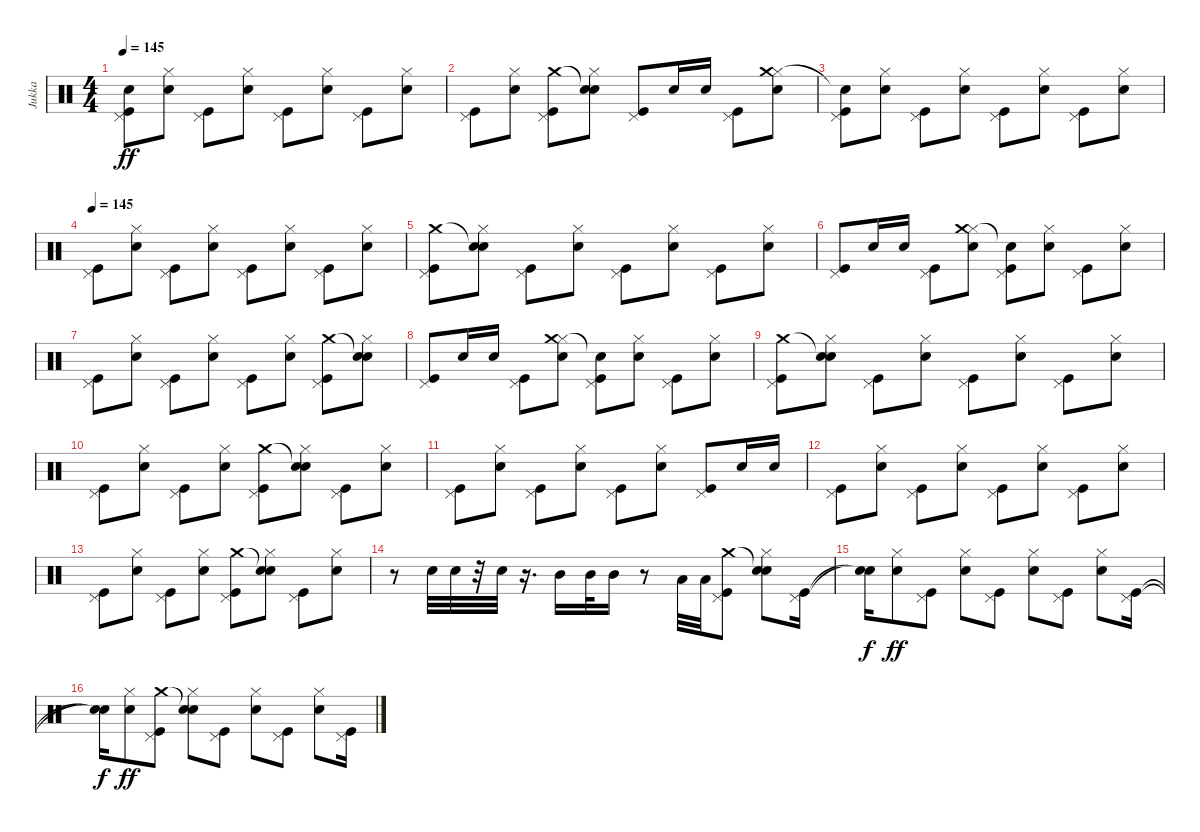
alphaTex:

\track ("Jukka" "Jukka") {instrument percussion}
\staff {score}
\articulation defaults
\ts (4 4)
\tempo 145
\clef neutral
\ks c
("Kick (hit)" "Pedal Hi-Hat (hit)" "Snare (hit)"{t}).8{dy ff} ("Electric Snare (hit)" "Hi-Hat (closed)").8 ("Kick (hit)" "Pedal Hi-Hat (hit)").8 ("Electric Snare (hit)" "Hi-Hat (closed)").8 ("Kick (hit)" "Pedal Hi-Hat (hit)").8 ("Electric Snare (hit)" "Hi-Hat (closed)").8 ("Kick (hit)" "Pedal Hi-Hat (hit)").8 ("Electric Snare (hit)" "Hi-Hat (closed)").8 |
("Kick (hit)" "Pedal Hi-Hat (hit)").8 ("Electric Snare (hit)" "Hi-Hat (closed)").8 ("Kick (hit)" "Pedal Hi-Hat (hit)" "Crash medium (hit)").8 ("Electric Snare (hit)" "Hi-Hat (closed)" "Snare (hit)"{t}).8 ("Kick (hit)" "Pedal Hi-Hat (hit)").8 "Electric Snare (hit)".16 "Electric Snare (hit)".16 ("Kick (hit)" "Pedal Hi-Hat (hit)").8 ("Electric Snare (hit)" "Hi-Hat (closed)" "Crash medium (hit)").8 |
("Kick (hit)" "Pedal Hi-Hat (hit)" "Snare (hit)"{t}).8 ("Electric Snare (hit)" "Hi-Hat (closed)").8 ("Kick (hit)" "Pedal Hi-Hat (hit)").8 ("Electric Snare (hit)" "Hi-Hat (closed)").8 ("Kick (hit)" "Pedal Hi-Hat (hit)").8 ("Electric Snare (hit)" "Hi-Hat (closed)").8 ("Kick (hit)" "Pedal Hi-Hat (hit)").8 ("Electric Snare (hit)" "Hi-Hat (closed)").8 |
\tempo 145
("Kick (hit)" "Pedal Hi-Hat (hit)").8 ("Electric Snare (hit)" "Hi-Hat (closed)").8 ("Kick (hit)" "Pedal Hi-Hat (hit)").8 ("Electric Snare (hit)" "Hi-Hat (closed)").8 ("Kick (hit)" "Pedal Hi-Hat (hit)").8 ("Electric Snare (hit)" "Hi-Hat (closed)").8 ("Kick (hit)" "Pedal Hi-Hat (hit)").8 ("Electric Snare (hit)" "Hi-Hat (closed)").8 |
("Kick (hit)" "Pedal Hi-Hat (hit)" "Crash medium (hit)").8 ("Electric Snare (hit)" "Hi-Hat (closed)" "Snare (hit)"{t}).8 ("Kick (hit)" "Pedal Hi-Hat (hit)").8 ("Electric Snare (hit)" "Hi-Hat (closed)").8 ("Kick (hit)" "Pedal Hi-Hat (hit)").8 ("Electric Snare (hit)" "Hi-Hat (closed)").8 ("Kick (hit)" "Pedal Hi-Hat (hit)").8 ("Electric Snare (hit)" "Hi-Hat (closed)").8 |
("Kick (hit)" "Pedal Hi-Hat (hit)").8 "Electric Snare (hit)".16 "Electric Snare (hit)".16 ("Kick (hit)" "Pedal Hi-Hat (hit)").8 ("Electric Snare (hit)" "Hi-Hat (closed)" "Crash medium (hit)").8 ("Kick (hit)" "Pedal Hi-Hat (hit)" "Snare (hit)"{t}).8 ("Electric Snare (hit)" "Hi-Hat (closed)").8 ("Kick (hit)" "Pedal Hi-Hat (hit)").8 ("Electric Snare (hit)" "Hi-Hat (closed)").8 |
("Kick (hit)" "Pedal Hi-Hat (hit)").8 ("Electric Snare (hit)" "Hi-Hat (closed)").8 ("Kick (hit)" "Pedal Hi-Hat (hit)").8 ("Electric Snare (hit)" "Hi-Hat (closed)").8 ("Kick (hit)" "Pedal Hi-Hat (hit)").8 ("Electric Snare (hit)" "Hi-Hat (closed)").8 ("Kick (hit)" "Pedal Hi-Hat (hit)" "Crash medium (hit)").8 ("Electric Snare (hit)" "Hi-Hat (closed)" "Snare (hit)"{t}).8 |
("Kick (hit)" "Pedal Hi-Hat (hit)").8 "Electric Snare (hit)".16 "Electric Snare (hit)".16 ("Kick (hit)" "Pedal Hi-Hat (hit)").8 ("Electric Snare (hit)" "Hi-Hat (closed)" "Crash medium (hit)").8 ("Kick (hit)" "Pedal Hi-Hat (hit)" "Snare (hit)"{t}).8 ("Electric Snare (hit)" "Hi-Hat (closed)").8 ("Kick (hit)" "Pedal Hi-Hat (hit)").8 ("Electric Snare (hit)" "Hi-Hat (closed)").8 |
("Kick (hit)" "Pedal Hi-Hat (hit)" "Crash medium (hit)").8 ("Electric Snare (hit)" "Hi-Hat (closed)" "Snare (hit)"{t}).8 ("Kick (hit)" "Pedal Hi-Hat (hit)").8 ("Electric Snare (hit)" "Hi-Hat (closed)").8 ("Kick (hit)" "Pedal Hi-Hat (hit)").8 ("Electric Snare (hit)" "Hi-Hat (closed)").8 ("Kick (hit)" "Pedal Hi-Hat (hit)").8 ("Electric Snare (hit)" "Hi-Hat (closed)").8 |
("Kick (hit)" "Pedal Hi-Hat (hit)").8 ("Electric Snare (hit)" "Hi-Hat (closed)").8 ("Kick (hit)" "Pedal Hi-Hat (hit)").8 ("Electric Snare (hit)" "Hi-Hat (closed)").8 ("Kick (hit)" "Pedal Hi-Hat (hit)" "Crash medium (hit)").8 ("Electric Snare (hit)" "Hi-Hat (closed)" "Snare (hit)"{t}).8 ("Kick (hit)" "Pedal Hi-Hat (hit)").8 ("Electric Snare (hit)" "Hi-Hat (closed)").8 |
("Kick (hit)" "Pedal Hi-Hat (hit)").8 ("Electric Snare (hit)" "Hi-Hat (closed)").8 ("Kick (hit)" "Pedal Hi-Hat (hit)").8 ("Electric Snare (hit)" "Hi-Hat (closed)").8 ("Kick (hit)" "Pedal Hi-Hat (hit)").8 ("Electric Snare (hit)" "Hi-Hat (closed)").8 ("Kick (hit)" "Pedal Hi-Hat (hit)").8 "Electric Snare (hit)".16 "Electric Snare (hit)".16 |
("Kick (hit)" "Pedal Hi-Hat (hit)").8 ("Electric Snare (hit)" "Hi-Hat (closed)").8 ("Kick (hit)" "Pedal Hi-Hat (hit)").8 ("Electric Snare (hit)" "Hi-Hat (closed)").8 ("Kick (hit)" "Pedal Hi-Hat (hit)").8 ("Electric Snare (hit)" "Hi-Hat (closed)").8 ("Kick (hit)" "Pedal Hi-Hat (hit)").8 ("Electric Snare (hit)" "Hi-Hat (closed)").8 |
("Kick (hit)" "Pedal Hi-Hat (hit)").8 ("Electric Snare (hit)" "Hi-Hat (closed)").8 ("Kick (hit)" "Pedal Hi-Hat (hit)").8 ("Electric Snare (hit)" "Hi-Hat (closed)").8 ("Kick (hit)" "Pedal Hi-Hat (hit)" "Crash medium (hit)").8 ("Electric Snare (hit)" "Hi-Hat (closed)" "Snare (hit)"{t}).8 ("Kick (hit)" "Pedal Hi-Hat (hit)").8 ("Electric Snare (hit)" "Hi-Hat (closed)").8 |
r.8 "Electric Snare (hit)".32 "Electric Snare (hit)".32 r.32 "Electric Snare (hit)".32 r.16{d} "Mid Tom (hit)".16 "Mid Tom (hit)".32 "Mid Tom (hit)".16 r.8 "Low Tom (hit)".32 "Low Tom (hit)".32 ("Kick (hit)" "Pedal Hi-Hat (hit)" "Crash medium (hit)").8 ("Electric Snare (hit)" "Hi-Hat (closed)" "Snare (hit)"{t}).8 ("Kick (hit)" "Pedal Hi-Hat (hit)").16 |
("Snare (hit)"{t} "Snare (hit)"{t}).16{dy f} ("Electric Snare (hit)" "Hi-Hat (closed)").8{dy ff} ("Kick (hit)" "Pedal Hi-Hat (hit)").8 ("Electric Snare (hit)" "Hi-Hat (closed)").8 ("Kick (hit)" "Pedal Hi-Hat (hit)").8 ("Electric Snare (hit)" "Hi-Hat (closed)").8 ("Kick (hit)" "Pedal Hi-Hat (hit)").8 ("Electric Snare (hit)" "Hi-Hat (closed)").8 ("Kick (hit)" "Pedal Hi-Hat (hit)").16 |
("Snare (hit)"{t} "Snare (hit)"{t}).16{dy f} ("Electric Snare (hit)" "Hi-Hat (closed)").8{dy ff} ("Kick (hit)" "Pedal Hi-Hat (hit)" "Crash medium (hit)").8 ("Electric Snare (hit)" "Hi-Hat (closed)" "Snare (hit)"{t}).8 ("Kick (hit)" "Pedal Hi-Hat (hit)").8 ("Electric Snare (hit)" "Hi-Hat (closed)").8 ("Kick (hit)" "Pedal Hi-Hat (hit)").8 ("Electric Snare (hit)" "Hi-Hat (closed)").8 ("Kick (hit)" "Pedal Hi-Hat (hit)").16
